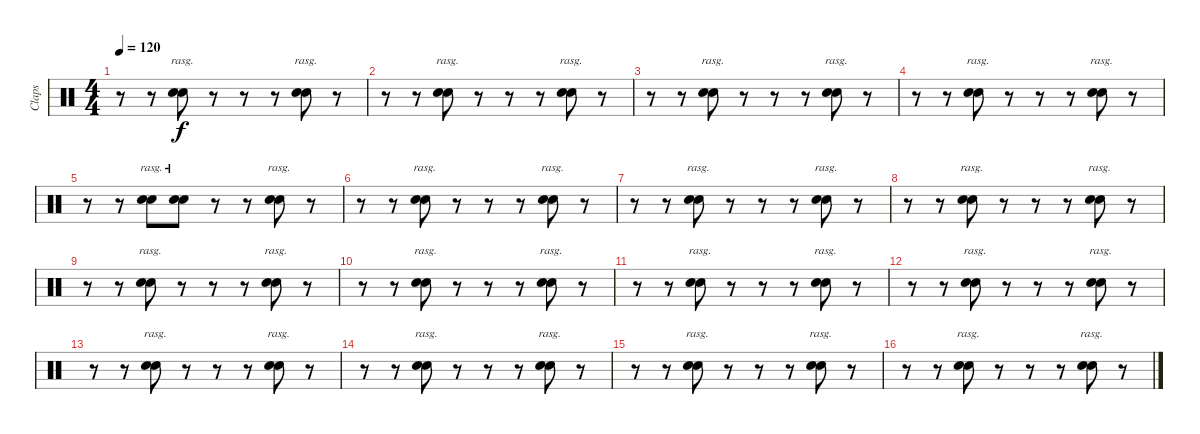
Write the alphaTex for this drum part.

\track ("Claps" "Claps") {instrument percussion}
\staff {score}
\articulation defaults
\ts (4 4)
\tempo 120
\clef neutral
\ks c
r.8{dy f} r.8 ("Hand Clap (hit)" "Hand Clap (hit)").8{bd 60 rasg ii} r.8 r.8 r.8 ("Hand Clap (hit)" "Hand Clap (hit)").8{bd 60 rasg ii} r.8 |
r.8 r.8 ("Hand Clap (hit)" "Hand Clap (hit)").8{bd 60 rasg ii} r.8 r.8 r.8 ("Hand Clap (hit)" "Hand Clap (hit)").8{bd 60 rasg ii} r.8 |
r.8 r.8 ("Hand Clap (hit)" "Hand Clap (hit)").8{bd 60 rasg ii} r.8 r.8 r.8 ("Hand Clap (hit)" "Hand Clap (hit)").8{bd 60 rasg ii} r.8 |
r.8 r.8 ("Hand Clap (hit)" "Hand Clap (hit)").8{bd 60 rasg ii} r.8 r.8 r.8 ("Hand Clap (hit)" "Hand Clap (hit)").8{bd 60 rasg ii} r.8 |
r.8 r.8 ("Hand Clap (hit)" "Hand Clap (hit)").8{bd 60 rasg ii} ("Hand Clap (hit)" "Hand Clap (hit)").8{bd 60 rasg ii} r.8 r.8 ("Hand Clap (hit)" "Hand Clap (hit)").8{bd 60 rasg ii} r.8 |
r.8 r.8 ("Hand Clap (hit)" "Hand Clap (hit)").8{bd 60 rasg ii} r.8 r.8 r.8 ("Hand Clap (hit)" "Hand Clap (hit)").8{bd 60 rasg ii} r.8 |
r.8 r.8 ("Hand Clap (hit)" "Hand Clap (hit)").8{bd 60 rasg ii} r.8 r.8 r.8 ("Hand Clap (hit)" "Hand Clap (hit)").8{bd 60 rasg ii} r.8 |
r.8 r.8 ("Hand Clap (hit)" "Hand Clap (hit)").8{bd 60 rasg ii} r.8 r.8 r.8 ("Hand Clap (hit)" "Hand Clap (hit)").8{bd 60 rasg ii} r.8 |
r.8 r.8 ("Hand Clap (hit)" "Hand Clap (hit)").8{bd 60 rasg ii} r.8 r.8 r.8 ("Hand Clap (hit)" "Hand Clap (hit)").8{bd 60 rasg ii} r.8 |
r.8 r.8 ("Hand Clap (hit)" "Hand Clap (hit)").8{bd 60 rasg ii} r.8 r.8 r.8 ("Hand Clap (hit)" "Hand Clap (hit)").8{bd 60 rasg ii} r.8 |
r.8 r.8 ("Hand Clap (hit)" "Hand Clap (hit)").8{bd 60 rasg ii} r.8 r.8 r.8 ("Hand Clap (hit)" "Hand Clap (hit)").8{bd 60 rasg ii} r.8 |
r.8 r.8 ("Hand Clap (hit)" "Hand Clap (hit)").8{bd 60 rasg ii} r.8 r.8 r.8 ("Hand Clap (hit)" "Hand Clap (hit)").8{bd 60 rasg ii} r.8 |
r.8 r.8 ("Hand Clap (hit)" "Hand Clap (hit)").8{bd 60 rasg ii} r.8 r.8 r.8 ("Hand Clap (hit)" "Hand Clap (hit)").8{bd 60 rasg ii} r.8 |
r.8 r.8 ("Hand Clap (hit)" "Hand Clap (hit)").8{bd 60 rasg ii} r.8 r.8 r.8 ("Hand Clap (hit)" "Hand Clap (hit)").8{bd 60 rasg ii} r.8 |
r.8 r.8 ("Hand Clap (hit)" "Hand Clap (hit)").8{bd 60 rasg ii} r.8 r.8 r.8 ("Hand Clap (hit)" "Hand Clap (hit)").8{bd 60 rasg ii} r.8 |
r.8 r.8 ("Hand Clap (hit)" "Hand Clap (hit)").8{bd 60 rasg ii} r.8 r.8 r.8 ("Hand Clap (hit)" "Hand Clap (hit)").8{bd 60 rasg ii} r.8
